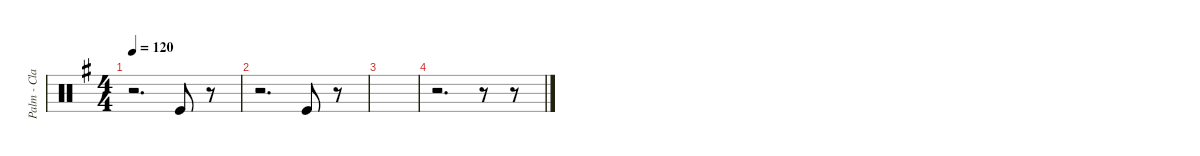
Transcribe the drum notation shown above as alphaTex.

\defaultSystemsLayout 4
\hideDynamics
\bracketExtendMode nobrackets
\otherSystemsTrackNameOrientation horizontal
\track ("Palm - Clap" "Palm - Cla") {defaultSystemsLayout 2 instrument percussion}
\staff {score}
\articulation defaults
\ts (4 4)
\tempo 120
\clef neutral
\ks g
r.2{d dy mp} "Kick (hit)"{acc forcenatural}.8 r.8 |
r.2{d} "Kick (hit)"{acc forcenatural}.8 r.8 |
|
r.2{d} r.8 r.8
